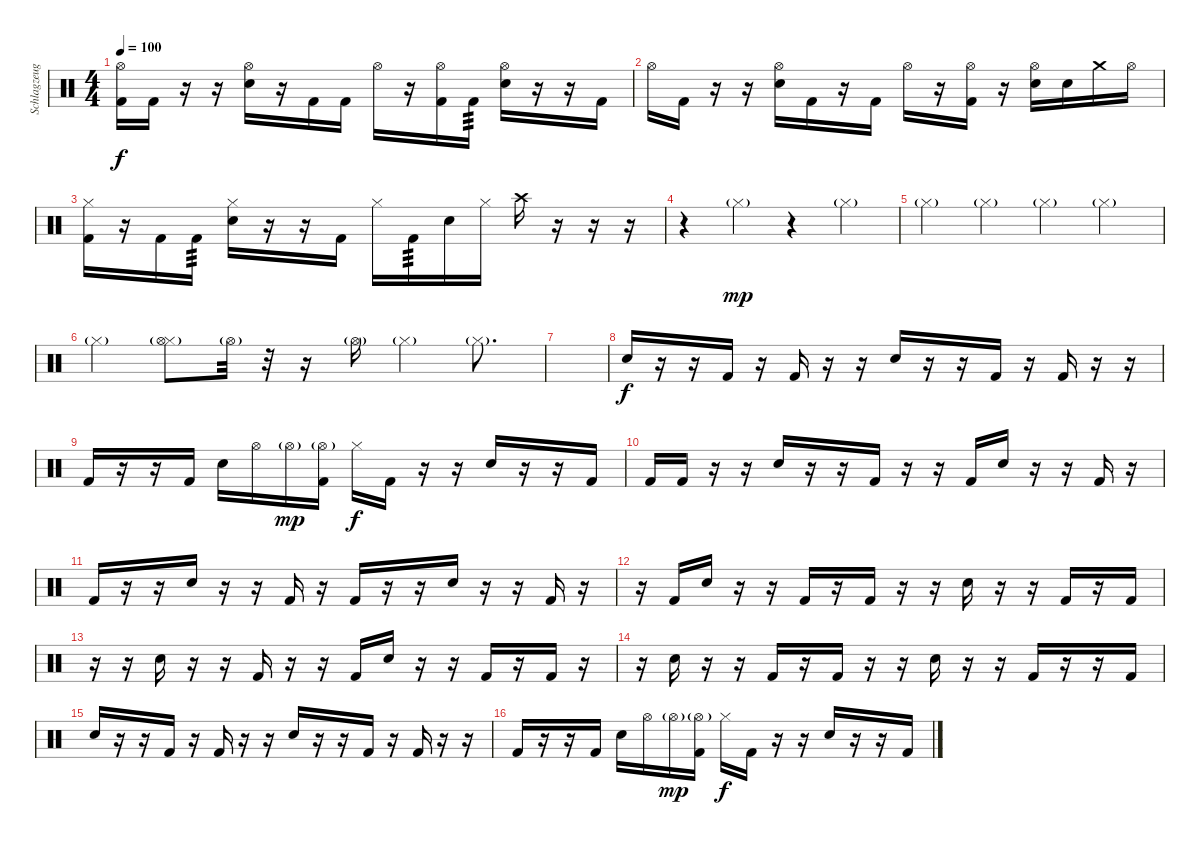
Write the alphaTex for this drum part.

\track ("Schlagzeug" "Schlagzeug") {instrument percussion}
\staff {score}
\articulation defaults
\ts (4 4)
\tempo 100
\clef neutral
\ks c
("Hi-Hat (open)" "Kick (hit) 2").16{dy f} "Kick (hit) 2".16 r.16 r.16 ("Hi-Hat (open)" "Snare (hit) 2").16 r.16 "Kick (hit) 2".16 "Kick (hit) 2".16 "Hi-Hat (open)".16 r.16 ("Hi-Hat (open)" "Kick (hit) 2").16 "Kick (hit) 2".16{tp 3} ("Hi-Hat (open)" "Snare (hit) 2").16 r.16 r.16 "Kick (hit) 2".16 |
"Hi-Hat (open)".16 "Kick (hit) 2".16 r.16 r.16 ("Hi-Hat (open)" "Snare (hit) 2").16 "Kick (hit) 2".16 r.16 "Kick (hit) 2".16 "Hi-Hat (open)".16 r.16 ("Hi-Hat (open)" "Kick (hit) 2").16 r.16 ("Hi-Hat (open)" "Snare (hit) 2").16 "Snare (hit) 2".16 "Crash medium (hit)".16 "Hi-Hat (open)".16 |
("Hi-Hat (closed)" "Kick (hit) 2").16 r.16 "Kick (hit) 2".16 "Kick (hit) 2".16{tp 3} ("Hi-Hat (closed)" "Snare (hit) 2").16 r.16 r.16 "Kick (hit) 2".16 "Hi-Hat (closed)".16 "Kick (hit) 2".16{tp 3} "Snare (hit) 2".16 "Hi-Hat (closed)".16 "Crash high (hit)".16 r.16 r.16 r.16 |
r.4 "Hi-Hat (closed)"{g}.4{dy mp} r.4 "Hi-Hat (closed)"{g}.4 |
"Hi-Hat (closed)"{g}.4 "Hi-Hat (closed)"{g}.4 "Hi-Hat (closed)"{g}.4 "Hi-Hat (closed)"{g}.4 |
"Hi-Hat (closed)"{g}.4 ("Hi-Hat (closed)"{g} "Hi-Hat (open)"{g}).8 "Hi-Hat (open)"{g}.32 r.32 r.16 "Hi-Hat (open)"{g}.16 "Hi-Hat (closed)"{g}.4 "Hi-Hat (closed)"{g}.8{d} |
|
"Snare (hit) 2".16{dy f} r.16 r.16 "Kick (hit) 2".16 r.16 "Kick (hit) 2".16 r.16 r.16 "Snare (hit) 2".16 r.16 r.16 "Kick (hit) 2".16 r.16 "Kick (hit) 2".16 r.16 r.16 |
"Kick (hit) 2".16 r.16 r.16 "Kick (hit) 2".16 "Snare (hit) 2".16 "Hi-Hat (open)".16 "Hi-Hat (open)"{g}.16{dy mp} ("Hi-Hat (open)"{g} "Kick (hit) 2").16 "Hi-Hat (closed)".16{dy f} "Kick (hit) 2".16 r.16 r.16 "Snare (hit) 2".16 r.16 r.16 "Kick (hit) 2".16 |
"Kick (hit) 2".16 "Kick (hit) 2".16 r.16 r.16 "Snare (hit) 2".16 r.16 r.16 "Kick (hit) 2".16 r.16 r.16 "Kick (hit) 2".16 "Snare (hit) 2".16 r.16 r.16 "Kick (hit) 2".16 r.16 |
"Kick (hit) 2".16 r.16 r.16 "Snare (hit) 2".16 r.16 r.16 "Kick (hit) 2".16 r.16 "Kick (hit) 2".16 r.16 r.16 "Snare (hit) 2".16 r.16 r.16 "Kick (hit) 2".16 r.16 |
r.16 "Kick (hit) 2".16 "Snare (hit) 2".16 r.16 r.16 "Kick (hit) 2".16 r.16 "Kick (hit) 2".16 r.16 r.16 "Snare (hit) 2".16 r.16 r.16 "Kick (hit) 2".16 r.16 "Kick (hit) 2".16 |
r.16 r.16 "Snare (hit) 2".16 r.16 r.16 "Kick (hit) 2".16 r.16 r.16 "Kick (hit) 2".16 "Snare (hit) 2".16 r.16 r.16 "Kick (hit) 2".16 r.16 "Kick (hit) 2".16 r.16 |
r.16 "Snare (hit) 2".16 r.16 r.16 "Kick (hit) 2".16 r.16 "Kick (hit) 2".16 r.16 r.16 "Snare (hit) 2".16 r.16 r.16 "Kick (hit) 2".16 r.16 r.16 "Kick (hit) 2".16 |
"Snare (hit) 2".16 r.16 r.16 "Kick (hit) 2".16 r.16 "Kick (hit) 2".16 r.16 r.16 "Snare (hit) 2".16 r.16 r.16 "Kick (hit) 2".16 r.16 "Kick (hit) 2".16 r.16 r.16 |
"Kick (hit) 2".16 r.16 r.16 "Kick (hit) 2".16 "Snare (hit) 2".16 "Hi-Hat (open)".16 "Hi-Hat (open)"{g}.16{dy mp} ("Hi-Hat (open)"{g} "Kick (hit) 2").16 "Hi-Hat (closed)".16{dy f} "Kick (hit) 2".16 r.16 r.16 "Snare (hit) 2".16 r.16 r.16 "Kick (hit) 2".16
